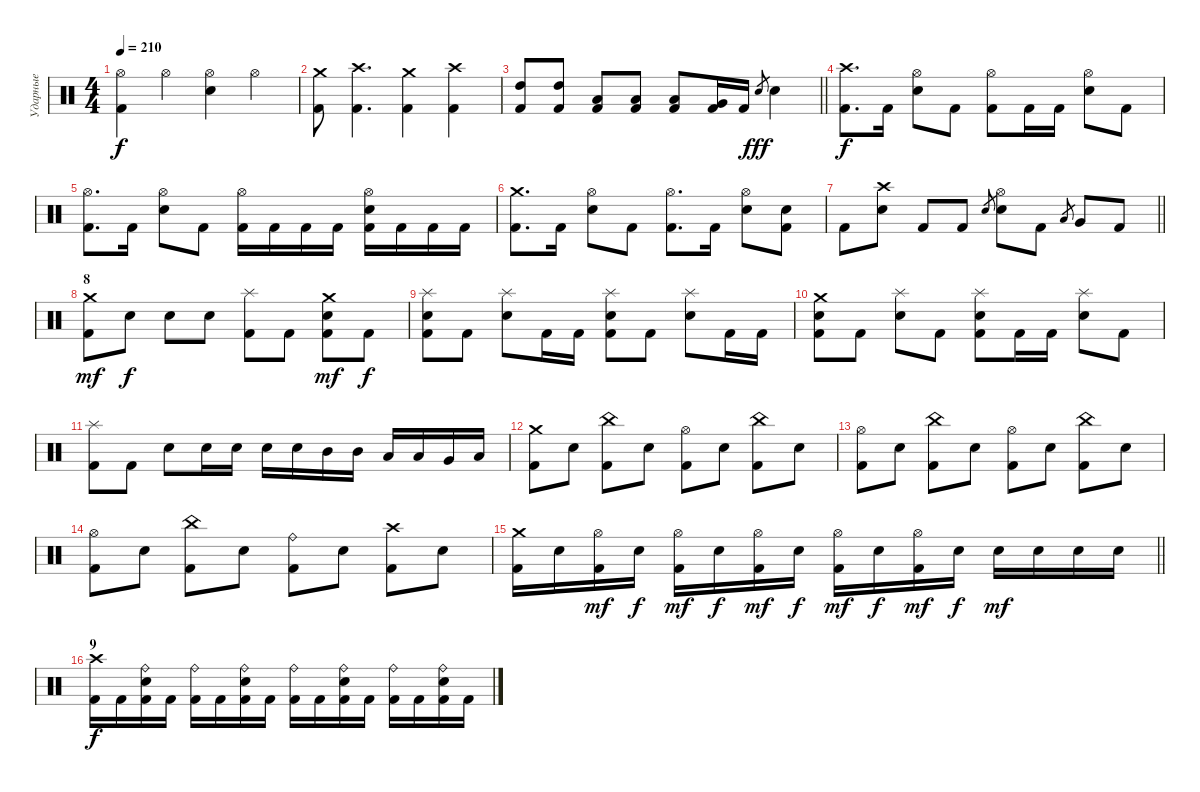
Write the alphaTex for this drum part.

\track ("Ударные" "Ударные") {instrument percussion}
\staff {score}
\articulation defaults
\ts (4 4)
\tempo 210
\clef neutral
\ks c
("Hi-Hat (open)" "Kick (hit) 2").4{dy f} "Hi-Hat (open)".4 ("Hi-Hat (open)" "Snare (hit) 2").4 "Hi-Hat (open)".4 |
("Crash medium (hit)" "Kick (hit) 2").8 ("Crash high (hit)" "Kick (hit) 2").4{d} ("Crash medium (hit)" "Kick (hit) 2").4 ("Crash high (hit)" "Kick (hit) 2").4 |
\barLineRight lightlight
("High Tom (hit)" "Kick (hit) 2").8 ("High Tom (hit)" "Kick (hit) 2").8 ("Low Tom (hit)" "Kick (hit) 2").8 ("Low Tom (hit)" "Kick (hit) 2").8 ("Low Floor Tom (hit)" "Kick (hit) 2").8 ("Very Low Tom (hit)" "Kick (hit) 2").16 "Kick (hit) 2".16 "Electric Snare (hit)".8{gr dy fff} "Snare (hit) 2".4 |
("Kick (hit) 2" "Crash high (hit)").8{d dy f} "Kick (hit) 2".16 ("Snare (hit) 2" "Hi-Hat (open)").8 "Kick (hit) 2".8 ("Kick (hit) 2" "Hi-Hat (open)").8 "Kick (hit) 2".16 "Kick (hit) 2".16 ("Snare (hit) 2" "Hi-Hat (open)").8 "Kick (hit) 2".8 |
("Kick (hit) 2" "Hi-Hat (open)").8{d} "Kick (hit) 2".16 ("Snare (hit) 2" "Hi-Hat (open)").8 "Kick (hit) 2".8 ("Kick (hit) 2" "Hi-Hat (open)").16 "Kick (hit) 2".16 "Kick (hit) 2".16 "Kick (hit) 2".16 ("Kick (hit) 2" "Hi-Hat (open)" "Snare (hit) 2").16 "Kick (hit) 2".16 "Kick (hit) 2".16 "Kick (hit) 2".16 |
("Kick (hit) 2" "Crash medium (hit)").8{d} "Kick (hit) 2".16 ("Snare (hit) 2" "Hi-Hat (open)").8 "Kick (hit) 2".8 ("Kick (hit) 2" "Hi-Hat (open)").8{d} "Kick (hit) 2".16 ("Snare (hit) 2" "Hi-Hat (open)").8 ("Kick (hit) 2" "Snare (hit) 2").8 |
\barLineRight lightlight "Kick (hit) 2".8
("Crash high (hit)" "Snare (hit) 2").8 "Kick (hit) 2".8 "Kick (hit) 2".8 "Electric Snare (hit)".8{gr} ("Hi-Hat (open)" "Snare (hit) 2").8 "Kick (hit) 2".8 "Low Tom (hit)".8{gr} "Very Low Tom (hit)".8 "Kick (hit) 2".8 |
\section ("" "8")
("Kick (hit) 2" "Crash medium (hit)").8{dy mf} "Snare (hit) 2".8{dy f} "Snare (hit) 2".8 "Snare (hit) 2".8 ("Kick (hit) 2" "Splash (hit)").8 "Kick (hit) 2".8 ("Kick (hit) 2" "Snare (hit) 2" "Crash medium (hit)").8{dy mf} "Kick (hit) 2".8{dy f} |
("Kick (hit) 2" "Snare (hit) 2" "Splash (hit)").8 "Kick (hit) 2".8 ("Snare (hit) 2" "Splash (hit)").8 "Kick (hit) 2".16 "Kick (hit) 2".16 ("Kick (hit) 2" "Snare (hit) 2" "Splash (hit)").8 "Kick (hit) 2".8 ("Snare (hit) 2" "Splash (hit)").8 "Kick (hit) 2".16 "Kick (hit) 2".16 |
("Kick (hit) 2" "Snare (hit) 2" "Crash medium (hit)").8 "Kick (hit) 2".8 ("Snare (hit) 2" "Splash (hit)").8 "Kick (hit) 2".8 ("Kick (hit) 2" "Snare (hit) 2" "Splash (hit)").8 "Kick (hit) 2".16 "Kick (hit) 2".16 ("Snare (hit) 2" "Splash (hit)").8 "Kick (hit) 2".8 |
("Kick (hit) 2" "Splash (hit)").8 "Kick (hit) 2".8 "Snare (hit) 2".8 "Snare (hit) 2".16 "Snare (hit) 2".16 "Snare (hit) 2".16 "Snare (hit) 2".16 "Mid Tom (hit)".16 "Mid Tom (hit)".16 "Low Tom (hit)".16 "Low Tom (hit)".16 "Very Low Tom (hit)".16 "Low Floor Tom (hit)".16 |
("Crash medium (hit)" "Kick (hit) 2").8 "Snare (hit) 2".8 ("China (hit)" "Kick (hit) 2").8 "Snare (hit) 2".8 ("Hi-Hat (open)" "Kick (hit) 2").8 "Snare (hit) 2".8 ("China (hit)" "Kick (hit) 2").8 "Snare (hit) 2".8 |
("Hi-Hat (open)" "Kick (hit) 2").8 "Snare (hit) 2".8 ("China (hit)" "Kick (hit) 2").8 "Snare (hit) 2".8 ("Hi-Hat (open)" "Kick (hit) 2").8 "Snare (hit) 2".8 ("China (hit)" "Kick (hit) 2").8 "Snare (hit) 2".8 |
("Hi-Hat (open)" "Kick (hit) 2").8 "Snare (hit) 2".8 ("China (hit)" "Kick (hit) 2").8 "Snare (hit) 2".8 ("Ride (bell)" "Kick (hit) 2").8 "Snare (hit) 2".8 ("Crash high (hit)" "Kick (hit) 2").8 "Snare (hit) 2".8 |
\barLineRight lightlight
("Crash medium (hit)" "Kick (hit) 2").16 "Snare (hit) 2".16 ("Hi-Hat (open)" "Kick (hit) 2").16{dy mf} "Snare (hit) 2".16{dy f} ("Hi-Hat (open)" "Kick (hit) 2").16{dy mf} "Snare (hit) 2".16{dy f} ("Hi-Hat (open)" "Kick (hit) 2").16{dy mf} "Snare (hit) 2".16{dy f} ("Hi-Hat (open)" "Kick (hit) 2").16{dy mf} "Snare (hit) 2".16{dy f} ("Hi-Hat (open)" "Kick (hit) 2").16{dy mf} "Snare (hit) 2".16{dy f} "Snare (hit) 2".16{dy mf} "Snare (hit) 2".16 "Snare (hit) 2".16 "Snare (hit) 2".16 |
\section ("" "9")
("Crash high (hit)" "Kick (hit) 2").16{dy f} "Kick (hit) 2".16 ("Ride (bell)" "Snare (hit) 2" "Kick (hit) 2").16 "Kick (hit) 2".16 ("Ride (bell)" "Kick (hit) 2").16 "Kick (hit) 2".16 ("Ride (bell)" "Snare (hit) 2" "Kick (hit) 2").16 "Kick (hit) 2".16 ("Ride (bell)" "Kick (hit) 2").16 "Kick (hit) 2".16 ("Ride (bell)" "Snare (hit) 2" "Kick (hit) 2").16 "Kick (hit) 2".16 ("Ride (bell)" "Kick (hit) 2").16 "Kick (hit) 2".16 ("Ride (bell)" "Snare (hit) 2" "Kick (hit) 2").16 "Kick (hit) 2".16
